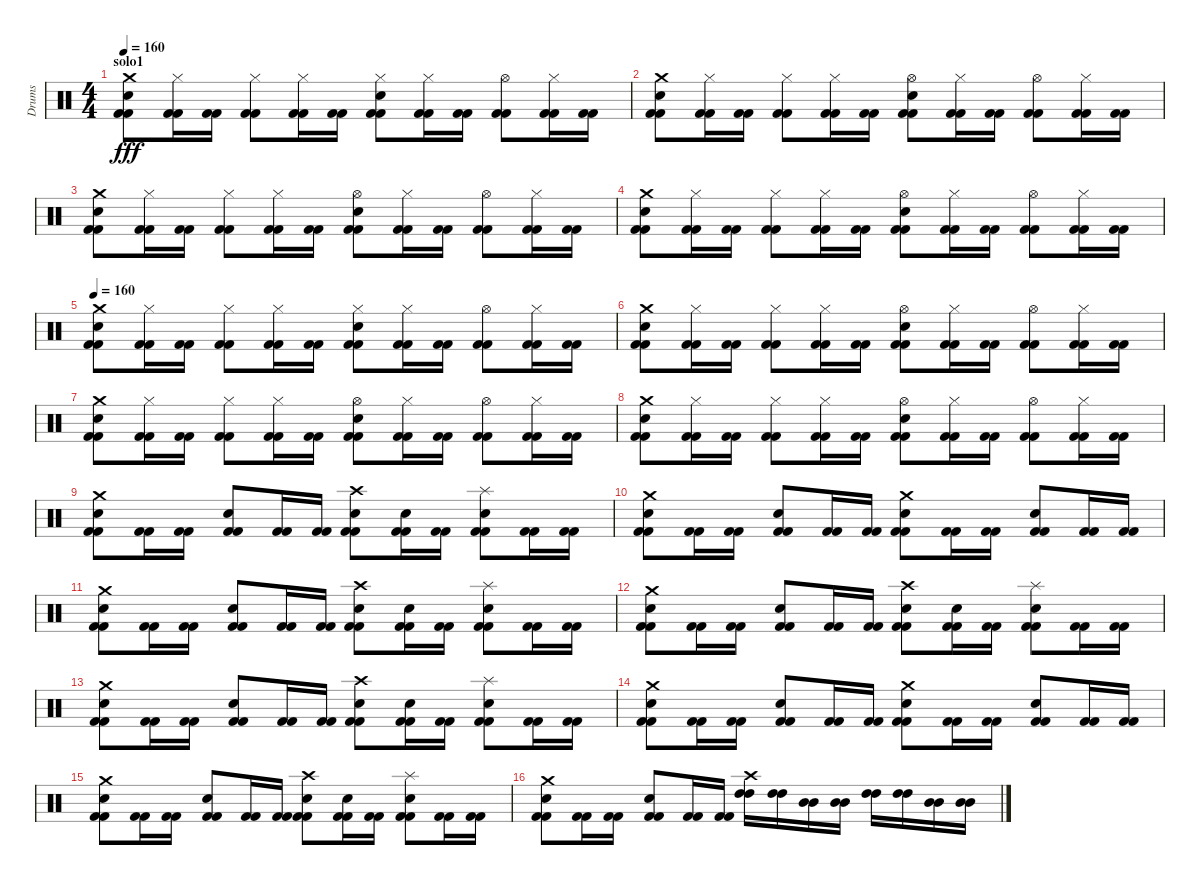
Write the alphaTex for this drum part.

\track ("Drums" "Drums") {instrument percussion}
\staff {score}
\articulation defaults
\ts (4 4)
\section ("" "solo1")
\tempo 160
\clef neutral
\ks c
("Crash medium (hit)" "Electric Snare (hit)" "Kick (hit) 2" "Kick (hit) 2").8{dy fff} ("Hi-Hat (closed)" "Kick (hit) 2" "Kick (hit) 2").16 ("Kick (hit) 2" "Kick (hit) 2").16 ("Hi-Hat (closed)" "Kick (hit) 2" "Kick (hit) 2").8 ("Hi-Hat (closed)" "Kick (hit) 2" "Kick (hit) 2").16 ("Kick (hit) 2" "Kick (hit) 2").16 ("Hi-Hat (closed)" "Electric Snare (hit)" "Kick (hit) 2" "Kick (hit) 2").8 ("Hi-Hat (closed)" "Kick (hit) 2" "Kick (hit) 2").16 ("Kick (hit) 2" "Kick (hit) 2").16 ("Hi-Hat (open)" "Kick (hit) 2" "Kick (hit) 2").8 ("Hi-Hat (closed)" "Kick (hit) 2" "Kick (hit) 2").16 ("Kick (hit) 2" "Kick (hit) 2").16 |
("Crash medium (hit)" "Electric Snare (hit)" "Kick (hit) 2" "Kick (hit) 2").8 ("Hi-Hat (closed)" "Kick (hit) 2" "Kick (hit) 2").16 ("Kick (hit) 2" "Kick (hit) 2").16 ("Hi-Hat (closed)" "Kick (hit) 2" "Kick (hit) 2").8 ("Hi-Hat (closed)" "Kick (hit) 2" "Kick (hit) 2").16 ("Kick (hit) 2" "Kick (hit) 2").16 ("Hi-Hat (open)" "Electric Snare (hit)" "Kick (hit) 2" "Kick (hit) 2").8 ("Hi-Hat (closed)" "Kick (hit) 2" "Kick (hit) 2").16 ("Kick (hit) 2" "Kick (hit) 2").16 ("Hi-Hat (open)" "Kick (hit) 2" "Kick (hit) 2").8 ("Hi-Hat (closed)" "Kick (hit) 2" "Kick (hit) 2").16 ("Kick (hit) 2" "Kick (hit) 2").16 |
("Crash medium (hit)" "Electric Snare (hit)" "Kick (hit) 2" "Kick (hit) 2").8 ("Hi-Hat (closed)" "Kick (hit) 2" "Kick (hit) 2").16 ("Kick (hit) 2" "Kick (hit) 2").16 ("Hi-Hat (closed)" "Kick (hit) 2" "Kick (hit) 2").8 ("Hi-Hat (closed)" "Kick (hit) 2" "Kick (hit) 2").16 ("Kick (hit) 2" "Kick (hit) 2").16 ("Hi-Hat (open)" "Electric Snare (hit)" "Kick (hit) 2" "Kick (hit) 2").8 ("Hi-Hat (closed)" "Kick (hit) 2" "Kick (hit) 2").16 ("Kick (hit) 2" "Kick (hit) 2").16 ("Hi-Hat (open)" "Kick (hit) 2" "Kick (hit) 2").8 ("Hi-Hat (closed)" "Kick (hit) 2" "Kick (hit) 2").16 ("Kick (hit) 2" "Kick (hit) 2").16 |
("Crash medium (hit)" "Electric Snare (hit)" "Kick (hit) 2" "Kick (hit) 2").8 ("Hi-Hat (closed)" "Kick (hit) 2" "Kick (hit) 2").16 ("Kick (hit) 2" "Kick (hit) 2").16 ("Hi-Hat (closed)" "Kick (hit) 2" "Kick (hit) 2").8 ("Hi-Hat (closed)" "Kick (hit) 2" "Kick (hit) 2").16 ("Kick (hit) 2" "Kick (hit) 2").16 ("Hi-Hat (open)" "Electric Snare (hit)" "Kick (hit) 2" "Kick (hit) 2").8 ("Hi-Hat (closed)" "Kick (hit) 2" "Kick (hit) 2").16 ("Kick (hit) 2" "Kick (hit) 2").16 ("Hi-Hat (open)" "Kick (hit) 2" "Kick (hit) 2").8 ("Hi-Hat (closed)" "Kick (hit) 2" "Kick (hit) 2").16 ("Kick (hit) 2" "Kick (hit) 2").16 |
\tempo 160
("Crash medium (hit)" "Electric Snare (hit)" "Kick (hit) 2" "Kick (hit) 2").8 ("Hi-Hat (closed)" "Kick (hit) 2" "Kick (hit) 2").16 ("Kick (hit) 2" "Kick (hit) 2").16 ("Hi-Hat (closed)" "Kick (hit) 2" "Kick (hit) 2").8 ("Hi-Hat (closed)" "Kick (hit) 2" "Kick (hit) 2").16 ("Kick (hit) 2" "Kick (hit) 2").16 ("Hi-Hat (closed)" "Electric Snare (hit)" "Kick (hit) 2" "Kick (hit) 2").8 ("Hi-Hat (closed)" "Kick (hit) 2" "Kick (hit) 2").16 ("Kick (hit) 2" "Kick (hit) 2").16 ("Hi-Hat (open)" "Kick (hit) 2" "Kick (hit) 2").8 ("Hi-Hat (closed)" "Kick (hit) 2" "Kick (hit) 2").16 ("Kick (hit) 2" "Kick (hit) 2").16 |
("Crash medium (hit)" "Electric Snare (hit)" "Kick (hit) 2" "Kick (hit) 2").8 ("Hi-Hat (closed)" "Kick (hit) 2" "Kick (hit) 2").16 ("Kick (hit) 2" "Kick (hit) 2").16 ("Hi-Hat (closed)" "Kick (hit) 2" "Kick (hit) 2").8 ("Hi-Hat (closed)" "Kick (hit) 2" "Kick (hit) 2").16 ("Kick (hit) 2" "Kick (hit) 2").16 ("Hi-Hat (open)" "Electric Snare (hit)" "Kick (hit) 2" "Kick (hit) 2").8 ("Hi-Hat (closed)" "Kick (hit) 2" "Kick (hit) 2").16 ("Kick (hit) 2" "Kick (hit) 2").16 ("Hi-Hat (open)" "Kick (hit) 2" "Kick (hit) 2").8 ("Hi-Hat (closed)" "Kick (hit) 2" "Kick (hit) 2").16 ("Kick (hit) 2" "Kick (hit) 2").16 |
("Crash medium (hit)" "Electric Snare (hit)" "Kick (hit) 2" "Kick (hit) 2").8 ("Hi-Hat (closed)" "Kick (hit) 2" "Kick (hit) 2").16 ("Kick (hit) 2" "Kick (hit) 2").16 ("Hi-Hat (closed)" "Kick (hit) 2" "Kick (hit) 2").8 ("Hi-Hat (closed)" "Kick (hit) 2" "Kick (hit) 2").16 ("Kick (hit) 2" "Kick (hit) 2").16 ("Hi-Hat (open)" "Electric Snare (hit)" "Kick (hit) 2" "Kick (hit) 2").8 ("Hi-Hat (closed)" "Kick (hit) 2" "Kick (hit) 2").16 ("Kick (hit) 2" "Kick (hit) 2").16 ("Hi-Hat (open)" "Kick (hit) 2" "Kick (hit) 2").8 ("Hi-Hat (closed)" "Kick (hit) 2" "Kick (hit) 2").16 ("Kick (hit) 2" "Kick (hit) 2").16 |
("Crash medium (hit)" "Electric Snare (hit)" "Kick (hit) 2" "Kick (hit) 2").8 ("Hi-Hat (closed)" "Kick (hit) 2" "Kick (hit) 2").16 ("Kick (hit) 2" "Kick (hit) 2").16 ("Hi-Hat (closed)" "Kick (hit) 2" "Kick (hit) 2").8 ("Hi-Hat (closed)" "Kick (hit) 2" "Kick (hit) 2").16 ("Kick (hit) 2" "Kick (hit) 2").16 ("Hi-Hat (open)" "Electric Snare (hit)" "Kick (hit) 2" "Kick (hit) 2").8 ("Hi-Hat (closed)" "Kick (hit) 2" "Kick (hit) 2").16 ("Kick (hit) 2" "Kick (hit) 2").16 ("Hi-Hat (open)" "Kick (hit) 2" "Kick (hit) 2").8 ("Hi-Hat (closed)" "Kick (hit) 2" "Kick (hit) 2").16 ("Kick (hit) 2" "Kick (hit) 2").16 |
("Crash medium (hit)" "Electric Snare (hit)" "Kick (hit) 2" "Kick (hit) 2").8 ("Kick (hit) 2" "Kick (hit) 2").16 ("Kick (hit) 2" "Kick (hit) 2").16 ("Electric Snare (hit)" "Kick (hit) 2" "Kick (hit) 2").8 ("Kick (hit) 2" "Kick (hit) 2").16 ("Kick (hit) 2" "Kick (hit) 2").16 ("Crash high (hit)" "Electric Snare (hit)" "Kick (hit) 2" "Kick (hit) 2").8 ("Electric Snare (hit)" "Kick (hit) 2" "Kick (hit) 2").16 ("Kick (hit) 2" "Kick (hit) 2").16 ("Splash (hit)" "Electric Snare (hit)" "Kick (hit) 2" "Kick (hit) 2").8 ("Kick (hit) 2" "Kick (hit) 2").16 ("Kick (hit) 2" "Kick (hit) 2").16 |
("Crash medium (hit)" "Electric Snare (hit)" "Kick (hit) 2" "Kick (hit) 2").8 ("Kick (hit) 2" "Kick (hit) 2").16 ("Kick (hit) 2" "Kick (hit) 2").16 ("Electric Snare (hit)" "Kick (hit) 2" "Kick (hit) 2").8 ("Kick (hit) 2" "Kick (hit) 2").16 ("Kick (hit) 2" "Kick (hit) 2").16 ("Crash medium (hit)" "Electric Snare (hit)" "Kick (hit) 2" "Kick (hit) 2").8 ("Kick (hit) 2" "Kick (hit) 2").16 ("Kick (hit) 2" "Kick (hit) 2").16 ("Electric Snare (hit)" "Kick (hit) 2" "Kick (hit) 2").8 ("Kick (hit) 2" "Kick (hit) 2").16 ("Kick (hit) 2" "Kick (hit) 2").16 |
("Crash medium (hit)" "Electric Snare (hit)" "Kick (hit) 2" "Kick (hit) 2").8 ("Kick (hit) 2" "Kick (hit) 2").16 ("Kick (hit) 2" "Kick (hit) 2").16 ("Electric Snare (hit)" "Kick (hit) 2" "Kick (hit) 2").8 ("Kick (hit) 2" "Kick (hit) 2").16 ("Kick (hit) 2" "Kick (hit) 2").16 ("Crash high (hit)" "Electric Snare (hit)" "Kick (hit) 2" "Kick (hit) 2").8 ("Electric Snare (hit)" "Kick (hit) 2" "Kick (hit) 2").16 ("Kick (hit) 2" "Kick (hit) 2").16 ("Splash (hit)" "Electric Snare (hit)" "Kick (hit) 2" "Kick (hit) 2").8 ("Kick (hit) 2" "Kick (hit) 2").16 ("Kick (hit) 2" "Kick (hit) 2").16 |
("Crash medium (hit)" "Electric Snare (hit)" "Kick (hit) 2" "Kick (hit) 2").8 ("Kick (hit) 2" "Kick (hit) 2").16 ("Kick (hit) 2" "Kick (hit) 2").16 ("Electric Snare (hit)" "Kick (hit) 2" "Kick (hit) 2").8 ("Kick (hit) 2" "Kick (hit) 2").16 ("Kick (hit) 2" "Kick (hit) 2").16 ("Crash high (hit)" "Electric Snare (hit)" "Kick (hit) 2" "Kick (hit) 2").8 ("Electric Snare (hit)" "Kick (hit) 2" "Kick (hit) 2").16 ("Kick (hit) 2" "Kick (hit) 2").16 ("Splash (hit)" "Electric Snare (hit)" "Kick (hit) 2" "Kick (hit) 2").8 ("Kick (hit) 2" "Kick (hit) 2").16 ("Kick (hit) 2" "Kick (hit) 2").16 |
("Crash medium (hit)" "Electric Snare (hit)" "Kick (hit) 2" "Kick (hit) 2").8 ("Kick (hit) 2" "Kick (hit) 2").16 ("Kick (hit) 2" "Kick (hit) 2").16 ("Electric Snare (hit)" "Kick (hit) 2" "Kick (hit) 2").8 ("Kick (hit) 2" "Kick (hit) 2").16 ("Kick (hit) 2" "Kick (hit) 2").16 ("Crash high (hit)" "Electric Snare (hit)" "Kick (hit) 2" "Kick (hit) 2").8 ("Electric Snare (hit)" "Kick (hit) 2" "Kick (hit) 2").16 ("Kick (hit) 2" "Kick (hit) 2").16 ("Splash (hit)" "Electric Snare (hit)" "Kick (hit) 2" "Kick (hit) 2").8 ("Kick (hit) 2" "Kick (hit) 2").16 ("Kick (hit) 2" "Kick (hit) 2").16 |
("Crash medium (hit)" "Electric Snare (hit)" "Kick (hit) 2" "Kick (hit) 2").8 ("Kick (hit) 2" "Kick (hit) 2").16 ("Kick (hit) 2" "Kick (hit) 2").16 ("Electric Snare (hit)" "Kick (hit) 2" "Kick (hit) 2").8 ("Kick (hit) 2" "Kick (hit) 2").16 ("Kick (hit) 2" "Kick (hit) 2").16 ("Crash medium (hit)" "Electric Snare (hit)" "Kick (hit) 2" "Kick (hit) 2").8 ("Kick (hit) 2" "Kick (hit) 2").16 ("Kick (hit) 2" "Kick (hit) 2").16 ("Electric Snare (hit)" "Kick (hit) 2" "Kick (hit) 2").8 ("Kick (hit) 2" "Kick (hit) 2").16 ("Kick (hit) 2" "Kick (hit) 2").16 |
("Crash medium (hit)" "Electric Snare (hit)" "Kick (hit) 2" "Kick (hit) 2").8 ("Kick (hit) 2" "Kick (hit) 2").16 ("Kick (hit) 2" "Kick (hit) 2").16 ("Electric Snare (hit)" "Kick (hit) 2" "Kick (hit) 2").8 ("Kick (hit) 2" "Kick (hit) 2").16 ("Kick (hit) 2" "Kick (hit) 2").16 ("Crash high (hit)" "Electric Snare (hit)" "Kick (hit) 2" "Kick (hit) 2").8 ("Electric Snare (hit)" "Kick (hit) 2" "Kick (hit) 2").16 ("Kick (hit) 2" "Kick (hit) 2").16 ("Splash (hit)" "Electric Snare (hit)" "Kick (hit) 2" "Kick (hit) 2").8 ("Kick (hit) 2" "Kick (hit) 2").16 ("Kick (hit) 2" "Kick (hit) 2").16 |
("Crash medium (hit)" "Electric Snare (hit)" "Kick (hit) 2" "Kick (hit) 2").8 ("Kick (hit) 2" "Kick (hit) 2").16 ("Kick (hit) 2" "Kick (hit) 2").16 ("Electric Snare (hit)" "Kick (hit) 2" "Kick (hit) 2").8 ("Kick (hit) 2" "Kick (hit) 2").16 ("Kick (hit) 2" "Kick (hit) 2").16 ("Crash high (hit)" "High Tom (hit)" "High Tom (hit)").16 ("High Tom (hit)" "High Tom (hit)").16 ("Mid Tom (hit)" "Mid Tom (hit)").16 ("Mid Tom (hit)" "Mid Tom (hit)").16 ("High Tom (hit)" "High Tom (hit)").16 ("High Tom (hit)" "High Tom (hit)").16 ("Mid Tom (hit)" "Mid Tom (hit)").16 ("Mid Tom (hit)" "Mid Tom (hit)").16
